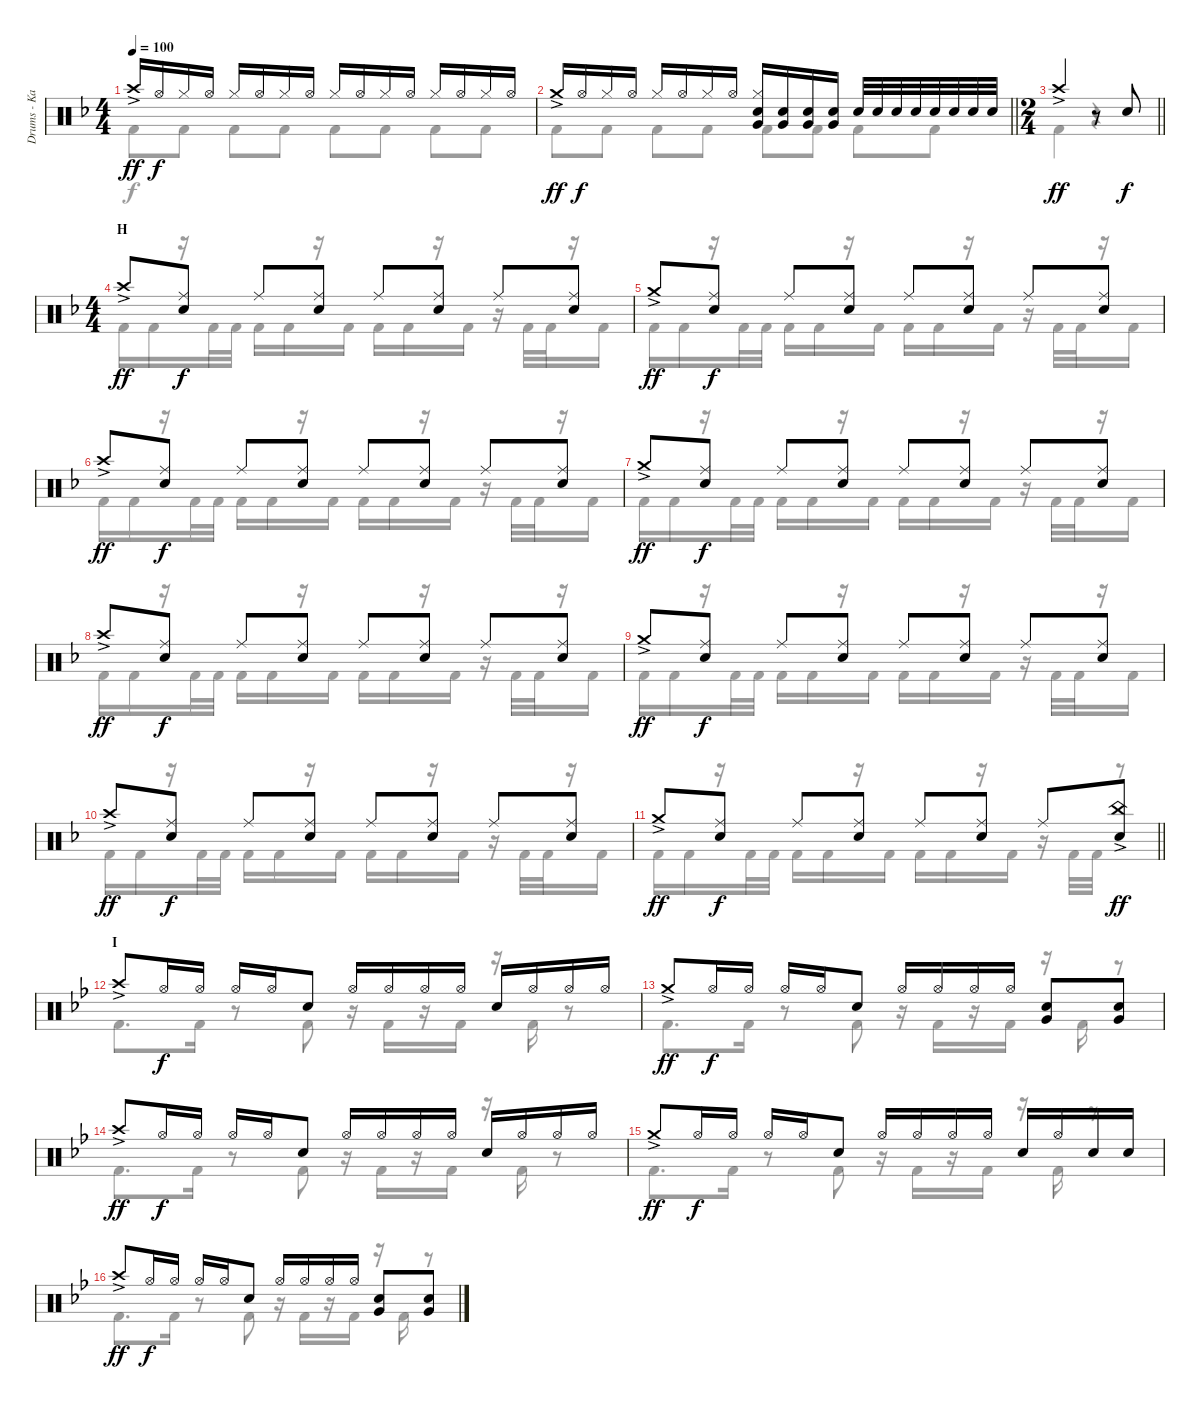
\track ("Drums - Kai" "Drums - Ka") {instrument percussion}
\staff {score}
\articulation defaults
\voice
\ts (4 4)
\tempo 100
\clef neutral
\ks f "Crash high (hit)"{ac}.16{dy ff} "Hi-Hat (open)".16{dy f} "Hi-Hat (closed)".16 "Hi-Hat (open)".16 "Hi-Hat (closed)".16 "Hi-Hat (open)".16 "Hi-Hat (closed)".16 "Hi-Hat (open)".16 "Hi-Hat (closed)".16 "Hi-Hat (open)".16 "Hi-Hat (closed)".16 "Hi-Hat (open)".16 "Hi-Hat (closed)".16 "Hi-Hat (open)".16 "Hi-Hat (closed)".16 "Hi-Hat (open)".16
|
\barLineRight lightlight "Crash medium (hit)"{ac}.16{dy ff} "Hi-Hat (open)".16{dy f} "Hi-Hat (closed)".16 "Hi-Hat (open)".16 "Hi-Hat (closed)".16 "Hi-Hat (open)".16 "Hi-Hat (closed)".16 "Hi-Hat (open)".16
("Very Low Tom (hit)" "Hi-Hat (closed)" "Electric Snare (hit)").16 ("Very Low Tom (hit)" "Electric Snare (hit)").16 ("Very Low Tom (hit)" "Electric Snare (hit)").16 ("Very Low Tom (hit)" "Electric Snare (hit)").16 "Electric Snare (hit)".32 "Electric Snare (hit)".32 "Electric Snare (hit)".32 "Electric Snare (hit)".32 "Electric Snare (hit)".32 "Electric Snare (hit)".32 "Electric Snare (hit)".32 "Electric Snare (hit)".32 |
\ts (2 4)
\barLineRight lightlight "Crash high (hit)"{ac}.4{dy ff}
r.8 "Electric Snare (hit)".8{dy f} |
\ts (4 4)
\section ("" "H")
"Crash high (hit)"{ac}.8{dy ff} ("Ride (middle)" "Electric Snare (hit)").8{dy f} "Ride (middle)".8 ("Ride (middle)" "Electric Snare (hit)").8 "Ride (middle)".8 ("Ride (middle)" "Electric Snare (hit)").8 "Ride (middle)".8 ("Ride (middle)" "Electric Snare (hit)").8 |
"Crash medium (hit)"{ac}.8{dy ff} ("Ride (middle)" "Electric Snare (hit)").8{dy f} "Ride (middle)".8 ("Ride (middle)" "Electric Snare (hit)").8 "Ride (middle)".8 ("Ride (middle)" "Electric Snare (hit)").8 "Ride (middle)".8 ("Ride (middle)" "Electric Snare (hit)").8 |
"Crash high (hit)"{ac}.8{dy ff} ("Ride (middle)" "Electric Snare (hit)").8{dy f} "Ride (middle)".8 ("Ride (middle)" "Electric Snare (hit)").8 "Ride (middle)".8 ("Ride (middle)" "Electric Snare (hit)").8 "Ride (middle)".8 ("Ride (middle)" "Electric Snare (hit)").8 |
"Crash medium (hit)"{ac}.8{dy ff} ("Ride (middle)" "Electric Snare (hit)").8{dy f} "Ride (middle)".8 ("Ride (middle)" "Electric Snare (hit)").8 "Ride (middle)".8 ("Ride (middle)" "Electric Snare (hit)").8 "Ride (middle)".8 ("Ride (middle)" "Electric Snare (hit)").8 |
"Crash high (hit)"{ac}.8{dy ff} ("Ride (middle)" "Electric Snare (hit)").8{dy f} "Ride (middle)".8 ("Ride (middle)" "Electric Snare (hit)").8 "Ride (middle)".8 ("Ride (middle)" "Electric Snare (hit)").8 "Ride (middle)".8 ("Ride (middle)" "Electric Snare (hit)").8 |
"Crash medium (hit)"{ac}.8{dy ff} ("Ride (middle)" "Electric Snare (hit)").8{dy f} "Ride (middle)".8 ("Ride (middle)" "Electric Snare (hit)").8 "Ride (middle)".8 ("Ride (middle)" "Electric Snare (hit)").8 "Ride (middle)".8 ("Ride (middle)" "Electric Snare (hit)").8 |
"Crash high (hit)"{ac}.8{dy ff} ("Ride (middle)" "Electric Snare (hit)").8{dy f} "Ride (middle)".8 ("Ride (middle)" "Electric Snare (hit)").8 "Ride (middle)".8 ("Ride (middle)" "Electric Snare (hit)").8 "Ride (middle)".8 ("Ride (middle)" "Electric Snare (hit)").8 |
\barLineRight lightlight "Crash medium (hit)"{ac}.8{dy ff}
("Ride (middle)" "Electric Snare (hit)").8{dy f} "Ride (middle)".8 ("Ride (middle)" "Electric Snare (hit)").8 "Ride (middle)".8 ("Ride (middle)" "Electric Snare (hit)").8 "Ride (middle)".8 ("China (hit)"{ac} "Electric Snare (hit)").8{dy ff} |
\section ("" "I")
\ks bb "Crash high (hit)"{ac}.8 "Hi-Hat (open)".16{dy f} "Hi-Hat (open)".16 "Hi-Hat (open)".16 "Hi-Hat (open)".16 "Electric Snare (hit)".8 "Hi-Hat (open)".16 "Hi-Hat (open)".16 "Hi-Hat (open)".16 "Hi-Hat (open)".16 "Electric Snare (hit)".16 "Hi-Hat (open)".16 "Hi-Hat (open)".16 "Hi-Hat (open)".16
|
"Crash medium (hit)"{ac}.8{dy ff} "Hi-Hat (open)".16{dy f} "Hi-Hat (open)".16 "Hi-Hat (open)".16 "Hi-Hat (open)".16 "Electric Snare (hit)".8 "Hi-Hat (open)".16 "Hi-Hat (open)".16 "Hi-Hat (open)".16 "Hi-Hat (open)".16 ("Very Low Tom (hit)" "Electric Snare (hit)").8 ("Very Low Tom (hit)" "Electric Snare (hit)").8 |
"Crash high (hit)"{ac}.8{dy ff} "Hi-Hat (open)".16{dy f} "Hi-Hat (open)".16 "Hi-Hat (open)".16 "Hi-Hat (open)".16 "Electric Snare (hit)".8 "Hi-Hat (open)".16 "Hi-Hat (open)".16 "Hi-Hat (open)".16 "Hi-Hat (open)".16 "Electric Snare (hit)".16 "Hi-Hat (open)".16 "Hi-Hat (open)".16 "Hi-Hat (open)".16 |
"Crash medium (hit)"{ac}.8{dy ff} "Hi-Hat (open)".16{dy f} "Hi-Hat (open)".16 "Hi-Hat (open)".16 "Hi-Hat (open)".16 "Electric Snare (hit)".8 "Hi-Hat (open)".16 "Hi-Hat (open)".16 "Hi-Hat (open)".16 "Hi-Hat (open)".16 "Electric Snare (hit)".16 "Hi-Hat (open)".16 "Electric Snare (hit)".16 "Electric Snare (hit)".16 |
"Crash high (hit)"{ac}.8{dy ff} "Hi-Hat (open)".16{dy f} "Hi-Hat (open)".16 "Hi-Hat (open)".16 "Hi-Hat (open)".16 "Electric Snare (hit)".8 "Hi-Hat (open)".16 "Hi-Hat (open)".16 "Hi-Hat (open)".16 "Hi-Hat (open)".16 ("Very Low Tom (hit)" "Electric Snare (hit)").8 ("Very Low Tom (hit)" "Electric Snare (hit)").8
\voice
\clef neutral
\ottava regular
\simile none
\ks f "Kick (hit) 2".8{dy f} "Kick (hit) 2".8 "Kick (hit) 2".8 "Kick (hit) 2".8 "Kick (hit) 2".8 "Kick (hit) 2".8 "Kick (hit) 2".8 "Kick (hit) 2".8
|
\barLineRight lightlight "Kick (hit) 2".8 "Kick (hit) 2".8 "Kick (hit) 2".8 "Kick (hit) 2".8 "Kick (hit) 2".8 "Kick (hit) 2".8 "Kick (hit) 2".8 "Kick (hit) 2".8
|
\barLineRight lightlight "Kick (hit) 2".4
r.4 |
"Kick (hit) 2".16 "Kick (hit) 2".16 r.16 "Kick (hit) 2".32 "Kick (hit) 2".32 "Kick (hit) 2".16 "Kick (hit) 2".16 r.16 "Kick (hit) 2".16 "Kick (hit) 2".16 "Kick (hit) 2".16 r.16 "Kick (hit) 2".16 r.16 "Kick (hit) 2".32 "Kick (hit) 2".32 r.16 "Kick (hit) 2".16 |
"Kick (hit) 2".16 "Kick (hit) 2".16 r.16 "Kick (hit) 2".32 "Kick (hit) 2".32 "Kick (hit) 2".16 "Kick (hit) 2".16 r.16 "Kick (hit) 2".16 "Kick (hit) 2".16 "Kick (hit) 2".16 r.16 "Kick (hit) 2".16 r.16 "Kick (hit) 2".32 "Kick (hit) 2".32 r.16 "Kick (hit) 2".16 |
"Kick (hit) 2".16 "Kick (hit) 2".16 r.16 "Kick (hit) 2".32 "Kick (hit) 2".32 "Kick (hit) 2".16 "Kick (hit) 2".16 r.16 "Kick (hit) 2".16 "Kick (hit) 2".16 "Kick (hit) 2".16 r.16 "Kick (hit) 2".16 r.16 "Kick (hit) 2".32 "Kick (hit) 2".32 r.16 "Kick (hit) 2".16 |
"Kick (hit) 2".16 "Kick (hit) 2".16 r.16 "Kick (hit) 2".32 "Kick (hit) 2".32 "Kick (hit) 2".16 "Kick (hit) 2".16 r.16 "Kick (hit) 2".16 "Kick (hit) 2".16 "Kick (hit) 2".16 r.16 "Kick (hit) 2".16 r.16 "Kick (hit) 2".32 "Kick (hit) 2".32 r.16 "Kick (hit) 2".16 |
"Kick (hit) 2".16 "Kick (hit) 2".16 r.16 "Kick (hit) 2".32 "Kick (hit) 2".32 "Kick (hit) 2".16 "Kick (hit) 2".16 r.16 "Kick (hit) 2".16 "Kick (hit) 2".16 "Kick (hit) 2".16 r.16 "Kick (hit) 2".16 r.16 "Kick (hit) 2".32 "Kick (hit) 2".32 r.16 "Kick (hit) 2".16 |
"Kick (hit) 2".16 "Kick (hit) 2".16 r.16 "Kick (hit) 2".32 "Kick (hit) 2".32 "Kick (hit) 2".16 "Kick (hit) 2".16 r.16 "Kick (hit) 2".16 "Kick (hit) 2".16 "Kick (hit) 2".16 r.16 "Kick (hit) 2".16 r.16 "Kick (hit) 2".32 "Kick (hit) 2".32 r.16 "Kick (hit) 2".16 |
"Kick (hit) 2".16 "Kick (hit) 2".16 r.16 "Kick (hit) 2".32 "Kick (hit) 2".32 "Kick (hit) 2".16 "Kick (hit) 2".16 r.16 "Kick (hit) 2".16 "Kick (hit) 2".16 "Kick (hit) 2".16 r.16 "Kick (hit) 2".16 r.16 "Kick (hit) 2".32 "Kick (hit) 2".32 r.16 "Kick (hit) 2".16 |
\barLineRight lightlight "Kick (hit) 2".16 "Kick (hit) 2".16
r.16 "Kick (hit) 2".32 "Kick (hit) 2".32 "Kick (hit) 2".16 "Kick (hit) 2".16 r.16 "Kick (hit) 2".16 "Kick (hit) 2".16 "Kick (hit) 2".16 r.16 "Kick (hit) 2".16 r.16 "Kick (hit) 2".32 "Kick (hit) 2".32 r.8 |
\ks bb "Kick (hit) 2".8{d} "Kick (hit) 2".16
r.8 "Kick (hit) 2".8 r.16 "Kick (hit) 2".16 r.16 "Kick (hit) 2".16 r.16 "Kick (hit) 2".16 r.8 |
"Kick (hit) 2".8{d} "Kick (hit) 2".16 r.8 "Kick (hit) 2".8 r.16 "Kick (hit) 2".16 r.16 "Kick (hit) 2".16 r.16 "Kick (hit) 2".16 r.8 |
"Kick (hit) 2".8{d} "Kick (hit) 2".16 r.8 "Kick (hit) 2".8 r.16 "Kick (hit) 2".16 r.16 "Kick (hit) 2".16 r.16 "Kick (hit) 2".16 r.8 |
"Kick (hit) 2".8{d} "Kick (hit) 2".16 r.8 "Kick (hit) 2".8 r.16 "Kick (hit) 2".16 r.16 "Kick (hit) 2".16 r.16 "Kick (hit) 2".16 r.8 |
"Kick (hit) 2".8{d} "Kick (hit) 2".16 r.8 "Kick (hit) 2".8 r.16 "Kick (hit) 2".16 r.16 "Kick (hit) 2".16 r.16 "Kick (hit) 2".16 r.8
